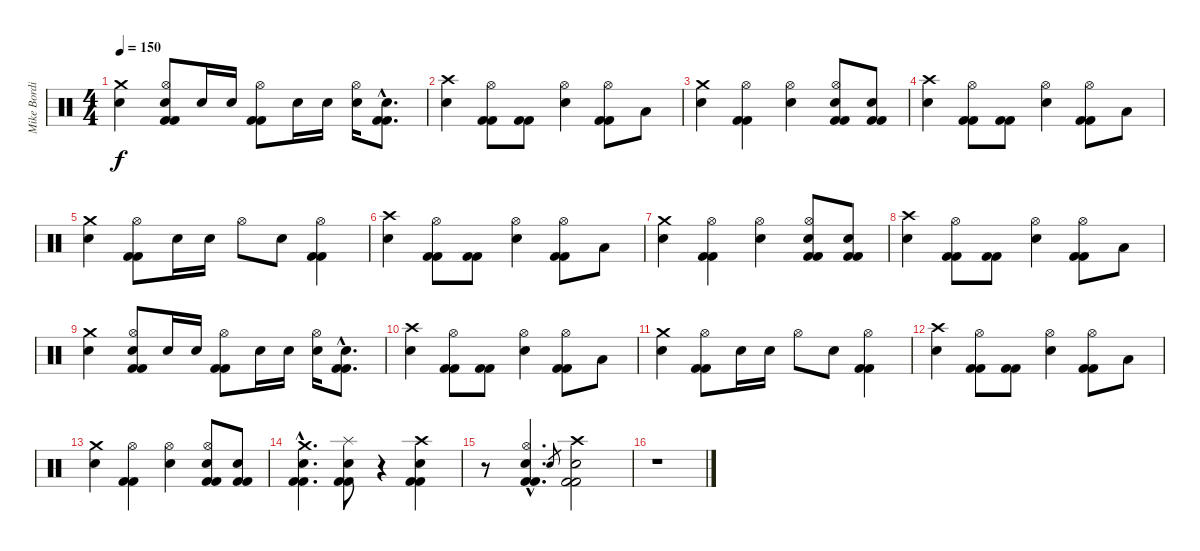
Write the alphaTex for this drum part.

\track ("Mike Bordin" "Mike Bordi") {instrument percussion}
\staff {score}
\articulation defaults
\ts (4 4)
\tempo 150
\clef neutral
\ks c
("Crash medium (hit)" "Electric Snare (hit)").4{dy f} ("Hi-Hat (open)" "Electric Snare (hit)" "Kick (hit) 2" "Kick (hit) 2").8 "Electric Snare (hit)".16 "Electric Snare (hit)".16 ("Hi-Hat (open)" "Kick (hit) 2" "Kick (hit) 2").8 "Electric Snare (hit)".16 "Electric Snare (hit)".16 ("Hi-Hat (open)" "Electric Snare (hit)").16 ("Electric Snare (hit)"{hac} "Kick (hit) 2"{hac} "Kick (hit) 2"{hac}).8{d} |
("Crash high (hit)" "Electric Snare (hit)").4 ("Hi-Hat (open)" "Kick (hit) 2" "Kick (hit) 2").8 ("Kick (hit) 2" "Kick (hit) 2").8 ("Hi-Hat (open)" "Electric Snare (hit)").4 ("Hi-Hat (open)" "Kick (hit) 2" "Kick (hit) 2").8 "Low Tom (hit)".8 |
("Crash medium (hit)" "Electric Snare (hit)").4 ("Hi-Hat (open)" "Kick (hit) 2" "Kick (hit) 2").4 ("Hi-Hat (open)" "Electric Snare (hit)").4 ("Hi-Hat (open)" "Electric Snare (hit)" "Kick (hit) 2" "Kick (hit) 2").8 ("Electric Snare (hit)" "Kick (hit) 2" "Kick (hit) 2").8 |
("Crash high (hit)" "Electric Snare (hit)").4 ("Hi-Hat (open)" "Kick (hit) 2" "Kick (hit) 2").8 ("Kick (hit) 2" "Kick (hit) 2").8 ("Hi-Hat (open)" "Electric Snare (hit)").4 ("Hi-Hat (open)" "Kick (hit) 2" "Kick (hit) 2").8 "Low Tom (hit)".8 |
("Crash medium (hit)" "Electric Snare (hit)").4 ("Hi-Hat (open)" "Kick (hit) 2" "Kick (hit) 2").8 "Electric Snare (hit)".16 "Electric Snare (hit)".16 "Hi-Hat (open)".8 "Electric Snare (hit)".8 ("Hi-Hat (open)" "Kick (hit) 2" "Kick (hit) 2").4 |
("Crash high (hit)" "Electric Snare (hit)").4 ("Hi-Hat (open)" "Kick (hit) 2" "Kick (hit) 2").8 ("Kick (hit) 2" "Kick (hit) 2").8 ("Hi-Hat (open)" "Electric Snare (hit)").4 ("Hi-Hat (open)" "Kick (hit) 2" "Kick (hit) 2").8 "Low Tom (hit)".8 |
("Crash medium (hit)" "Electric Snare (hit)").4 ("Hi-Hat (open)" "Kick (hit) 2" "Kick (hit) 2").4 ("Hi-Hat (open)" "Electric Snare (hit)").4 ("Hi-Hat (open)" "Electric Snare (hit)" "Kick (hit) 2" "Kick (hit) 2").8 ("Electric Snare (hit)" "Kick (hit) 2" "Kick (hit) 2").8 |
("Crash high (hit)" "Electric Snare (hit)").4 ("Hi-Hat (open)" "Kick (hit) 2" "Kick (hit) 2").8 ("Kick (hit) 2" "Kick (hit) 2").8 ("Hi-Hat (open)" "Electric Snare (hit)").4 ("Hi-Hat (open)" "Kick (hit) 2" "Kick (hit) 2").8 "Low Tom (hit)".8 |
("Crash medium (hit)" "Electric Snare (hit)").4 ("Hi-Hat (open)" "Electric Snare (hit)" "Kick (hit) 2" "Kick (hit) 2").8 "Electric Snare (hit)".16 "Electric Snare (hit)".16 ("Hi-Hat (open)" "Kick (hit) 2" "Kick (hit) 2").8 "Electric Snare (hit)".16 "Electric Snare (hit)".16 ("Hi-Hat (open)" "Electric Snare (hit)").16 ("Electric Snare (hit)"{hac} "Kick (hit) 2"{hac} "Kick (hit) 2"{hac}).8{d} |
("Crash high (hit)" "Electric Snare (hit)").4 ("Hi-Hat (open)" "Kick (hit) 2" "Kick (hit) 2").8 ("Kick (hit) 2" "Kick (hit) 2").8 ("Hi-Hat (open)" "Electric Snare (hit)").4 ("Hi-Hat (open)" "Kick (hit) 2" "Kick (hit) 2").8 "Low Tom (hit)".8 |
("Crash medium (hit)" "Electric Snare (hit)").4 ("Hi-Hat (open)" "Kick (hit) 2" "Kick (hit) 2").8 "Electric Snare (hit)".16 "Electric Snare (hit)".16 "Hi-Hat (open)".8 "Electric Snare (hit)".8 ("Hi-Hat (open)" "Kick (hit) 2" "Kick (hit) 2").4 |
("Crash high (hit)" "Electric Snare (hit)").4 ("Hi-Hat (open)" "Kick (hit) 2" "Kick (hit) 2").8 ("Kick (hit) 2" "Kick (hit) 2").8 ("Hi-Hat (open)" "Electric Snare (hit)").4 ("Hi-Hat (open)" "Kick (hit) 2" "Kick (hit) 2").8 "Low Tom (hit)".8 |
("Crash medium (hit)" "Electric Snare (hit)").4 ("Hi-Hat (open)" "Kick (hit) 2" "Kick (hit) 2").4 ("Hi-Hat (open)" "Electric Snare (hit)").4 ("Hi-Hat (open)" "Electric Snare (hit)" "Kick (hit) 2" "Kick (hit) 2").8 ("Electric Snare (hit)" "Kick (hit) 2" "Kick (hit) 2").8 |
("Crash medium (hit)"{hac} "Electric Snare (hit)"{hac} "Kick (hit) 2"{hac} "Kick (hit) 2"{hac}).4{d} ("Splash (hit)" "Electric Snare (hit)" "Kick (hit) 2" "Kick (hit) 2").8 r.4 ("Crash high (hit)" "Electric Snare (hit)" "Kick (hit) 2" "Kick (hit) 2").4 |
r.8 ("Hi-Hat (open)"{hac} "Electric Snare (hit)"{hac} "Kick (hit) 2"{hac} "Kick (hit) 2"{hac}).4{d} "Electric Snare (hit)".8{gr} ("Crash high (hit)" "Electric Snare (hit)" "Kick (hit) 2" "Kick (hit) 2").2 |
r.1
